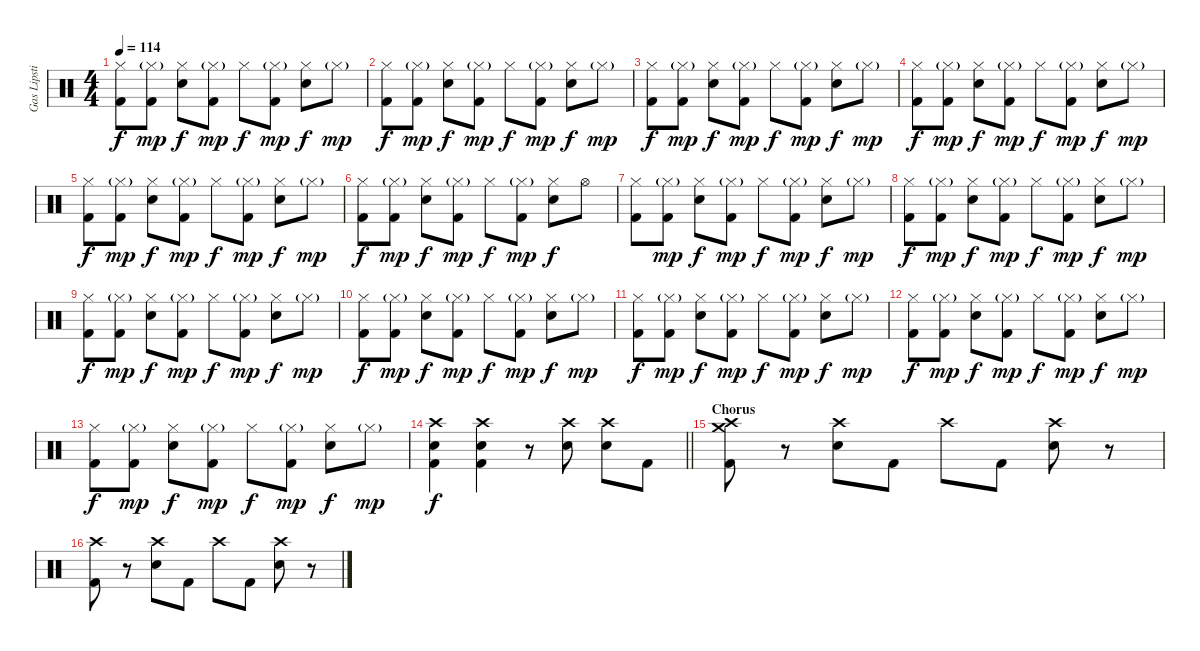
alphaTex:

\track ("Gas Lipstick (Drums)" "Gas Lipsti") {instrument percussion}
\staff {score}
\articulation defaults
\ts (4 4)
\tempo 114
\clef neutral
\ks c
("Hi-Hat (closed)" "Kick (hit) 2").8{dy f} ("Hi-Hat (closed)"{g} "Kick (hit) 2").8{dy mp} ("Hi-Hat (closed)" "Snare (hit) 2").8{dy f} ("Hi-Hat (closed)"{g} "Kick (hit) 2").8{dy mp} "Hi-Hat (closed)".8{dy f} ("Hi-Hat (closed)"{g} "Kick (hit) 2").8{dy mp} ("Hi-Hat (closed)" "Snare (hit) 2").8{dy f} "Hi-Hat (closed)"{g}.8{dy mp} |
("Hi-Hat (closed)" "Kick (hit) 2").8{dy f} ("Hi-Hat (closed)"{g} "Kick (hit) 2").8{dy mp} ("Hi-Hat (closed)" "Snare (hit) 2").8{dy f} ("Hi-Hat (closed)"{g} "Kick (hit) 2").8{dy mp} "Hi-Hat (closed)".8{dy f} ("Hi-Hat (closed)"{g} "Kick (hit) 2").8{dy mp} ("Hi-Hat (closed)" "Snare (hit) 2").8{dy f} "Hi-Hat (closed)"{g}.8{dy mp} |
("Hi-Hat (closed)" "Kick (hit) 2").8{dy f} ("Hi-Hat (closed)"{g} "Kick (hit) 2").8{dy mp} ("Hi-Hat (closed)" "Snare (hit) 2").8{dy f} ("Hi-Hat (closed)"{g} "Kick (hit) 2").8{dy mp} "Hi-Hat (closed)".8{dy f} ("Hi-Hat (closed)"{g} "Kick (hit) 2").8{dy mp} ("Hi-Hat (closed)" "Snare (hit) 2").8{dy f} "Hi-Hat (closed)"{g}.8{dy mp} |
("Hi-Hat (closed)" "Kick (hit) 2").8{dy f} ("Hi-Hat (closed)"{g} "Kick (hit) 2").8{dy mp} ("Hi-Hat (closed)" "Snare (hit) 2").8{dy f} ("Hi-Hat (closed)"{g} "Kick (hit) 2").8{dy mp} "Hi-Hat (closed)".8{dy f} ("Hi-Hat (closed)"{g} "Kick (hit) 2").8{dy mp} ("Hi-Hat (closed)" "Snare (hit) 2").8{dy f} "Hi-Hat (closed)"{g}.8{dy mp} |
("Hi-Hat (closed)" "Kick (hit) 2").8{dy f} ("Hi-Hat (closed)"{g} "Kick (hit) 2").8{dy mp} ("Hi-Hat (closed)" "Snare (hit) 2").8{dy f} ("Hi-Hat (closed)"{g} "Kick (hit) 2").8{dy mp} "Hi-Hat (closed)".8{dy f} ("Hi-Hat (closed)"{g} "Kick (hit) 2").8{dy mp} ("Hi-Hat (closed)" "Snare (hit) 2").8{dy f} "Hi-Hat (closed)"{g}.8{dy mp} |
("Hi-Hat (closed)" "Kick (hit) 2").8{dy f} ("Hi-Hat (closed)"{g} "Kick (hit) 2").8{dy mp} ("Hi-Hat (closed)" "Snare (hit) 2").8{dy f} ("Hi-Hat (closed)"{g} "Kick (hit) 2").8{dy mp} "Hi-Hat (closed)".8{dy f} ("Hi-Hat (closed)"{g} "Kick (hit) 2").8{dy mp} ("Hi-Hat (closed)" "Snare (hit) 2").8{dy f} "Hi-Hat (open)".8 |
("Hi-Hat (closed)" "Kick (hit) 2").8 ("Hi-Hat (closed)"{g} "Kick (hit) 2").8{dy mp} ("Hi-Hat (closed)" "Snare (hit) 2").8{dy f} ("Hi-Hat (closed)"{g} "Kick (hit) 2").8{dy mp} "Hi-Hat (closed)".8{dy f} ("Hi-Hat (closed)"{g} "Kick (hit) 2").8{dy mp} ("Hi-Hat (closed)" "Snare (hit) 2").8{dy f} "Hi-Hat (closed)"{g}.8{dy mp} |
("Hi-Hat (closed)" "Kick (hit) 2").8{dy f} ("Hi-Hat (closed)"{g} "Kick (hit) 2").8{dy mp} ("Hi-Hat (closed)" "Snare (hit) 2").8{dy f} ("Hi-Hat (closed)"{g} "Kick (hit) 2").8{dy mp} "Hi-Hat (closed)".8{dy f} ("Hi-Hat (closed)"{g} "Kick (hit) 2").8{dy mp} ("Hi-Hat (closed)" "Snare (hit) 2").8{dy f} "Hi-Hat (closed)"{g}.8{dy mp} |
("Hi-Hat (closed)" "Kick (hit) 2").8{dy f} ("Hi-Hat (closed)"{g} "Kick (hit) 2").8{dy mp} ("Hi-Hat (closed)" "Snare (hit) 2").8{dy f} ("Hi-Hat (closed)"{g} "Kick (hit) 2").8{dy mp} "Hi-Hat (closed)".8{dy f} ("Hi-Hat (closed)"{g} "Kick (hit) 2").8{dy mp} ("Hi-Hat (closed)" "Snare (hit) 2").8{dy f} "Hi-Hat (closed)"{g}.8{dy mp} |
("Hi-Hat (closed)" "Kick (hit) 2").8{dy f} ("Hi-Hat (closed)"{g} "Kick (hit) 2").8{dy mp} ("Hi-Hat (closed)" "Snare (hit) 2").8{dy f} ("Hi-Hat (closed)"{g} "Kick (hit) 2").8{dy mp} "Hi-Hat (closed)".8{dy f} ("Hi-Hat (closed)"{g} "Kick (hit) 2").8{dy mp} ("Hi-Hat (closed)" "Snare (hit) 2").8{dy f} "Hi-Hat (closed)"{g}.8{dy mp} |
("Hi-Hat (closed)" "Kick (hit) 2").8{dy f} ("Hi-Hat (closed)"{g} "Kick (hit) 2").8{dy mp} ("Hi-Hat (closed)" "Snare (hit) 2").8{dy f} ("Hi-Hat (closed)"{g} "Kick (hit) 2").8{dy mp} "Hi-Hat (closed)".8{dy f} ("Hi-Hat (closed)"{g} "Kick (hit) 2").8{dy mp} ("Hi-Hat (closed)" "Snare (hit) 2").8{dy f} "Hi-Hat (closed)"{g}.8{dy mp} |
("Hi-Hat (closed)" "Kick (hit) 2").8{dy f} ("Hi-Hat (closed)"{g} "Kick (hit) 2").8{dy mp} ("Hi-Hat (closed)" "Snare (hit) 2").8{dy f} ("Hi-Hat (closed)"{g} "Kick (hit) 2").8{dy mp} "Hi-Hat (closed)".8{dy f} ("Hi-Hat (closed)"{g} "Kick (hit) 2").8{dy mp} ("Hi-Hat (closed)" "Snare (hit) 2").8{dy f} "Hi-Hat (closed)"{g}.8{dy mp} |
("Hi-Hat (closed)" "Kick (hit) 2").8{dy f} ("Hi-Hat (closed)"{g} "Kick (hit) 2").8{dy mp} ("Hi-Hat (closed)" "Snare (hit) 2").8{dy f} ("Hi-Hat (closed)"{g} "Kick (hit) 2").8{dy mp} "Hi-Hat (closed)".8{dy f} ("Hi-Hat (closed)"{g} "Kick (hit) 2").8{dy mp} ("Hi-Hat (closed)" "Snare (hit) 2").8{dy f} "Hi-Hat (closed)"{g}.8{dy mp} |
\barLineRight lightlight
("Crash high (hit)" "Snare (hit) 2" "Kick (hit) 2").4{dy f} ("Crash high (hit)" "Snare (hit) 2" "Kick (hit) 2").4 r.8 ("Crash high (hit)" "Snare (hit) 2").8 ("Crash high (hit)" "Snare (hit) 2").8 "Kick (hit) 2".8 |
\section ("" "Chorus")
("Crash medium (hit)" "Crash high (hit)" "Kick (hit) 2").8 r.8 ("Crash high (hit)" "Snare (hit) 2").8 "Kick (hit) 2".8 "Crash high (hit)".8 "Kick (hit) 2".8 ("Crash high (hit)" "Snare (hit) 2").8 r.8 |
("Crash high (hit)" "Kick (hit) 2").8 r.8 ("Crash high (hit)" "Snare (hit) 2").8 "Kick (hit) 2".8 "Crash high (hit)".8 "Kick (hit) 2".8 ("Crash high (hit)" "Snare (hit) 2").8 r.8
